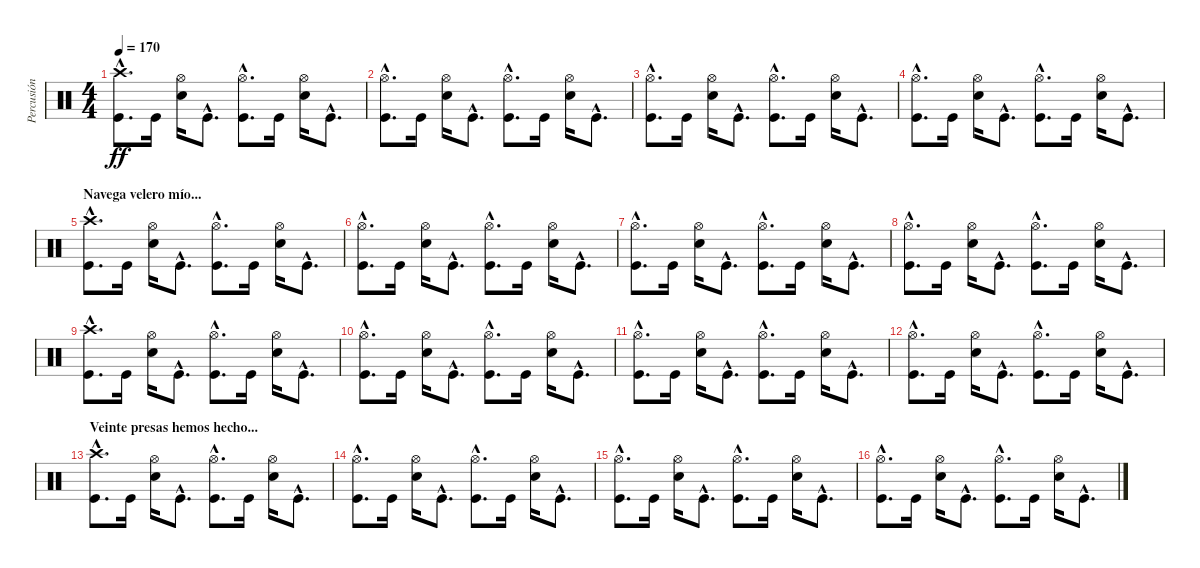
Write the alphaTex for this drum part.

\track ("Percusión" "Percusión") {instrument percussion}
\staff {score}
\articulation defaults
\ts (4 4)
\tempo 170
\clef neutral
\ks c
("Crash high (hit)"{hac} "Kick (hit)"{hac}).8{d dy ff} "Kick (hit)".16 ("Hi-Hat (open)" "Snare (hit) 2").16 "Kick (hit)"{hac}.8{d} ("Hi-Hat (open)"{hac} "Kick (hit)"{hac}).8{d} "Kick (hit)".16 ("Hi-Hat (open)" "Snare (hit) 2").16 "Kick (hit)"{hac}.8{d} |
("Hi-Hat (open)"{hac} "Kick (hit)"{hac}).8{d} "Kick (hit)".16 ("Hi-Hat (open)" "Snare (hit) 2").16 "Kick (hit)"{hac}.8{d} ("Hi-Hat (open)"{hac} "Kick (hit)"{hac}).8{d} "Kick (hit)".16 ("Hi-Hat (open)" "Snare (hit) 2").16 "Kick (hit)"{hac}.8{d} |
("Hi-Hat (open)"{hac} "Kick (hit)"{hac}).8{d} "Kick (hit)".16 ("Hi-Hat (open)" "Snare (hit) 2").16 "Kick (hit)"{hac}.8{d} ("Hi-Hat (open)"{hac} "Kick (hit)"{hac}).8{d} "Kick (hit)".16 ("Hi-Hat (open)" "Snare (hit) 2").16 "Kick (hit)"{hac}.8{d} |
("Hi-Hat (open)"{hac} "Kick (hit)"{hac}).8{d} "Kick (hit)".16 ("Hi-Hat (open)" "Snare (hit) 2").16 "Kick (hit)"{hac}.8{d} ("Hi-Hat (open)"{hac} "Kick (hit)"{hac}).8{d} "Kick (hit)".16 ("Hi-Hat (open)" "Snare (hit) 2").16 "Kick (hit)"{hac}.8{d} |
\section ("" "Navega velero mío...")
("Crash high (hit)"{hac} "Kick (hit)"{hac}).8{d} "Kick (hit)".16 ("Hi-Hat (open)" "Snare (hit) 2").16 "Kick (hit)"{hac}.8{d} ("Hi-Hat (open)"{hac} "Kick (hit)"{hac}).8{d} "Kick (hit)".16 ("Hi-Hat (open)" "Snare (hit) 2").16 "Kick (hit)"{hac}.8{d} |
("Hi-Hat (open)"{hac} "Kick (hit)"{hac}).8{d} "Kick (hit)".16 ("Hi-Hat (open)" "Snare (hit) 2").16 "Kick (hit)"{hac}.8{d} ("Hi-Hat (open)"{hac} "Kick (hit)"{hac}).8{d} "Kick (hit)".16 ("Hi-Hat (open)" "Snare (hit) 2").16 "Kick (hit)"{hac}.8{d} |
("Hi-Hat (open)"{hac} "Kick (hit)"{hac}).8{d} "Kick (hit)".16 ("Hi-Hat (open)" "Snare (hit) 2").16 "Kick (hit)"{hac}.8{d} ("Hi-Hat (open)"{hac} "Kick (hit)"{hac}).8{d} "Kick (hit)".16 ("Hi-Hat (open)" "Snare (hit) 2").16 "Kick (hit)"{hac}.8{d} |
("Hi-Hat (open)"{hac} "Kick (hit)"{hac}).8{d} "Kick (hit)".16 ("Hi-Hat (open)" "Snare (hit) 2").16 "Kick (hit)"{hac}.8{d} ("Hi-Hat (open)"{hac} "Kick (hit)"{hac}).8{d} "Kick (hit)".16 ("Hi-Hat (open)" "Snare (hit) 2").16 "Kick (hit)"{hac}.8{d} |
("Crash high (hit)"{hac} "Kick (hit)"{hac}).8{d} "Kick (hit)".16 ("Hi-Hat (open)" "Snare (hit) 2").16 "Kick (hit)"{hac}.8{d} ("Hi-Hat (open)"{hac} "Kick (hit)"{hac}).8{d} "Kick (hit)".16 ("Hi-Hat (open)" "Snare (hit) 2").16 "Kick (hit)"{hac}.8{d} |
("Hi-Hat (open)"{hac} "Kick (hit)"{hac}).8{d} "Kick (hit)".16 ("Hi-Hat (open)" "Snare (hit) 2").16 "Kick (hit)"{hac}.8{d} ("Hi-Hat (open)"{hac} "Kick (hit)"{hac}).8{d} "Kick (hit)".16 ("Hi-Hat (open)" "Snare (hit) 2").16 "Kick (hit)"{hac}.8{d} |
("Hi-Hat (open)"{hac} "Kick (hit)"{hac}).8{d} "Kick (hit)".16 ("Hi-Hat (open)" "Snare (hit) 2").16 "Kick (hit)"{hac}.8{d} ("Hi-Hat (open)"{hac} "Kick (hit)"{hac}).8{d} "Kick (hit)".16 ("Hi-Hat (open)" "Snare (hit) 2").16 "Kick (hit)"{hac}.8{d} |
("Hi-Hat (open)"{hac} "Kick (hit)"{hac}).8{d} "Kick (hit)".16 ("Hi-Hat (open)" "Snare (hit) 2").16 "Kick (hit)"{hac}.8{d} ("Hi-Hat (open)"{hac} "Kick (hit)"{hac}).8{d} "Kick (hit)".16 ("Hi-Hat (open)" "Snare (hit) 2").16 "Kick (hit)"{hac}.8{d} |
\section ("" "Veinte presas hemos hecho...")
("Crash high (hit)"{hac} "Kick (hit)"{hac}).8{d} "Kick (hit)".16 ("Hi-Hat (open)" "Snare (hit) 2").16 "Kick (hit)"{hac}.8{d} ("Hi-Hat (open)"{hac} "Kick (hit)"{hac}).8{d} "Kick (hit)".16 ("Hi-Hat (open)" "Snare (hit) 2").16 "Kick (hit)"{hac}.8{d} |
("Hi-Hat (open)"{hac} "Kick (hit)"{hac}).8{d} "Kick (hit)".16 ("Hi-Hat (open)" "Snare (hit) 2").16 "Kick (hit)"{hac}.8{d} ("Hi-Hat (open)"{hac} "Kick (hit)"{hac}).8{d} "Kick (hit)".16 ("Hi-Hat (open)" "Snare (hit) 2").16 "Kick (hit)"{hac}.8{d} |
("Hi-Hat (open)"{hac} "Kick (hit)"{hac}).8{d} "Kick (hit)".16 ("Hi-Hat (open)" "Snare (hit) 2").16 "Kick (hit)"{hac}.8{d} ("Hi-Hat (open)"{hac} "Kick (hit)"{hac}).8{d} "Kick (hit)".16 ("Hi-Hat (open)" "Snare (hit) 2").16 "Kick (hit)"{hac}.8{d} |
("Hi-Hat (open)"{hac} "Kick (hit)"{hac}).8{d} "Kick (hit)".16 ("Hi-Hat (open)" "Snare (hit) 2").16 "Kick (hit)"{hac}.8{d} ("Hi-Hat (open)"{hac} "Kick (hit)"{hac}).8{d} "Kick (hit)".16 ("Hi-Hat (open)" "Snare (hit) 2").16 "Kick (hit)"{hac}.8{d}
